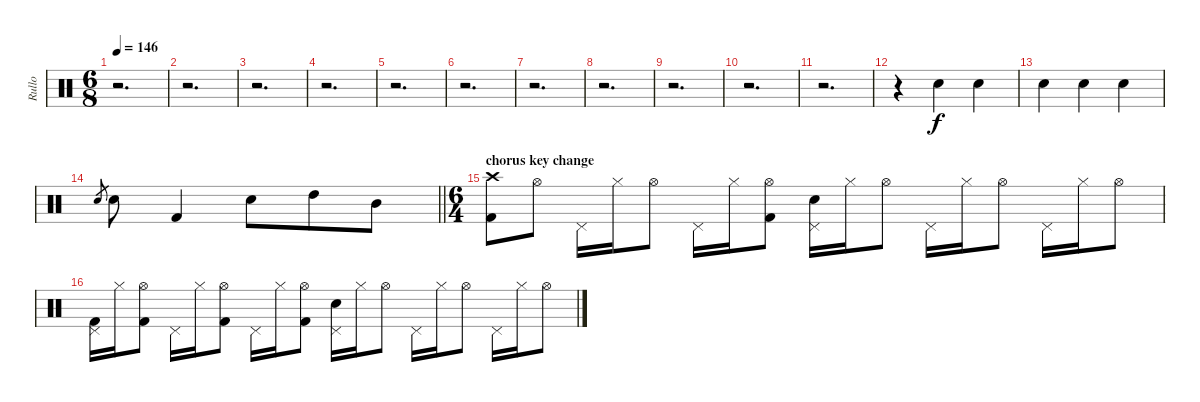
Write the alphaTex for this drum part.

\track ("Rullo" "Rullo") {instrument percussion}
\staff {score}
\articulation defaults
\ts (6 8)
\tempo 146
\clef neutral
\ks c
r.2{d dy f} |
r.2{d} |
r.2{d} |
r.2{d} |
r.2{d} |
r.2{d} |
r.2{d} |
r.2{d} |
r.2{d} |
r.2{d} |
r.2{d} |
r.4{volume 13} "Electric Snare (hit)".4 "Electric Snare (hit)".4 |
"Electric Snare (hit)".4 "Electric Snare (hit)".4 "Electric Snare (hit)".4 |
\barLineRight lightlight "Electric Snare (hit)".8{gr} "Electric Snare (hit)".8 "Kick (hit) 2".4 "Electric Snare (hit)".8 "High Tom (hit)".8 "Mid Tom (hit)".8
|
\ts (6 4)
\section ("" "chorus key change")
("Crash high (hit)" "Kick (hit) 2").8 "Hi-Hat (open)".8 "Pedal Hi-Hat (hit)".16 "Hi-Hat (closed)".16 "Hi-Hat (open)".8 "Pedal Hi-Hat (hit)".16 "Hi-Hat (closed)".16 ("Hi-Hat (open)" "Kick (hit) 2").8 ("Pedal Hi-Hat (hit)" "Electric Snare (hit)").16 "Hi-Hat (closed)".16 "Hi-Hat (open)".8 "Pedal Hi-Hat (hit)".16 "Hi-Hat (closed)".16 "Hi-Hat (open)".8 "Pedal Hi-Hat (hit)".16 "Hi-Hat (closed)".16 "Hi-Hat (open)".8 |
("Pedal Hi-Hat (hit)" "Kick (hit) 2").16 "Hi-Hat (closed)".16 ("Hi-Hat (open)" "Kick (hit) 2").8 "Pedal Hi-Hat (hit)".16 "Hi-Hat (closed)".16 ("Hi-Hat (open)" "Kick (hit) 2").8 "Pedal Hi-Hat (hit)".16 "Hi-Hat (closed)".16 ("Hi-Hat (open)" "Kick (hit) 2").8 ("Pedal Hi-Hat (hit)" "Electric Snare (hit)").16 "Hi-Hat (closed)".16 "Hi-Hat (open)".8 "Pedal Hi-Hat (hit)".16 "Hi-Hat (closed)".16 "Hi-Hat (open)".8 "Pedal Hi-Hat (hit)".16 "Hi-Hat (closed)".16 "Hi-Hat (open)".8
